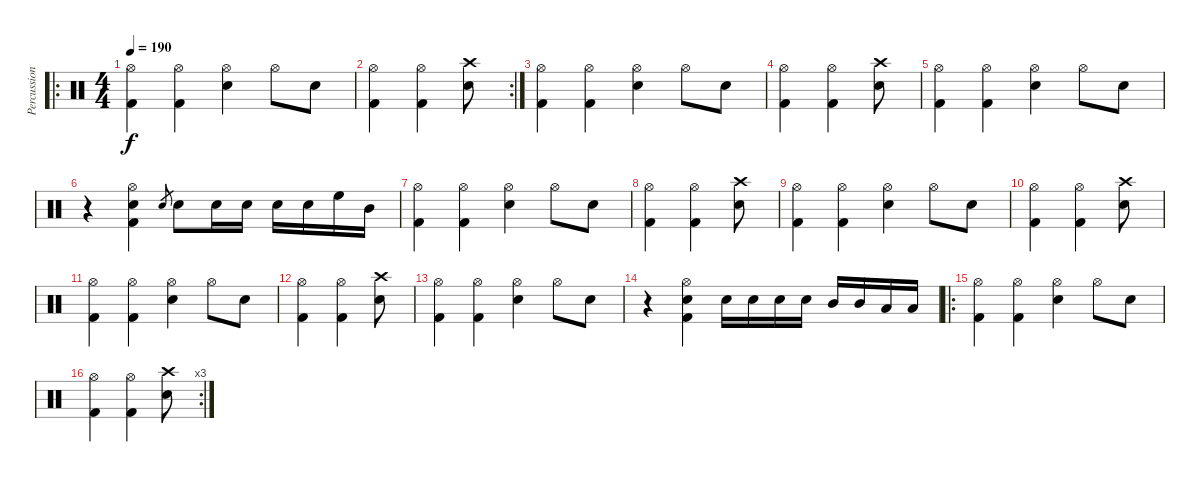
\track ("Percussion" "Percussion") {instrument percussion}
\staff {score}
\articulation defaults
\ro
\ts (4 4)
\tempo 190
\clef neutral
\ks c
("Hi-Hat (open)" "Kick (hit) 2").4{dy f} ("Hi-Hat (open)" "Kick (hit) 2").4 ("Hi-Hat (open)" "Electric Snare (hit)").4 "Hi-Hat (open)".8 "Electric Snare (hit)".8 |
\rc 2
("Hi-Hat (open)" "Kick (hit) 2").4 ("Hi-Hat (open)" "Kick (hit) 2").4 ("Crash high (hit)" "Electric Snare (hit)").8 |
("Hi-Hat (open)" "Kick (hit) 2").4 ("Hi-Hat (open)" "Kick (hit) 2").4 ("Hi-Hat (open)" "Electric Snare (hit)").4 "Hi-Hat (open)".8 "Electric Snare (hit)".8 |
("Hi-Hat (open)" "Kick (hit) 2").4 ("Hi-Hat (open)" "Kick (hit) 2").4 ("Crash high (hit)" "Electric Snare (hit)").8 |
("Hi-Hat (open)" "Kick (hit) 2").4 ("Hi-Hat (open)" "Kick (hit) 2").4 ("Hi-Hat (open)" "Electric Snare (hit)").4 "Hi-Hat (open)".8 "Electric Snare (hit)".8 |
r.4 ("Hi-Hat (open)" "Electric Snare (hit)" "Kick (hit) 2").4 "Electric Snare (hit)".8{gr} "Electric Snare (hit)".8 "Electric Snare (hit)".16 "Electric Snare (hit)".16 "Electric Snare (hit)".16 "Electric Snare (hit)".16 "High Floor Tom (hit)".16 "Mid Tom (hit)".16 |
("Hi-Hat (open)" "Kick (hit) 2").4 ("Hi-Hat (open)" "Kick (hit) 2").4 ("Hi-Hat (open)" "Electric Snare (hit)").4 "Hi-Hat (open)".8 "Electric Snare (hit)".8 |
("Hi-Hat (open)" "Kick (hit) 2").4 ("Hi-Hat (open)" "Kick (hit) 2").4 ("Crash high (hit)" "Electric Snare (hit)").8 |
("Hi-Hat (open)" "Kick (hit) 2").4 ("Hi-Hat (open)" "Kick (hit) 2").4 ("Hi-Hat (open)" "Electric Snare (hit)").4 "Hi-Hat (open)".8 "Electric Snare (hit)".8 |
("Hi-Hat (open)" "Kick (hit) 2").4 ("Hi-Hat (open)" "Kick (hit) 2").4 ("Crash high (hit)" "Electric Snare (hit)").8 |
("Hi-Hat (open)" "Kick (hit) 2").4 ("Hi-Hat (open)" "Kick (hit) 2").4 ("Hi-Hat (open)" "Electric Snare (hit)").4 "Hi-Hat (open)".8 "Electric Snare (hit)".8 |
("Hi-Hat (open)" "Kick (hit) 2").4 ("Hi-Hat (open)" "Kick (hit) 2").4 ("Crash high (hit)" "Electric Snare (hit)").8 |
("Hi-Hat (open)" "Kick (hit) 2").4 ("Hi-Hat (open)" "Kick (hit) 2").4 ("Hi-Hat (open)" "Electric Snare (hit)").4 "Hi-Hat (open)".8 "Electric Snare (hit)".8 |
r.4 ("Hi-Hat (open)" "Electric Snare (hit)" "Kick (hit) 2").4 "Electric Snare (hit)".16 "Electric Snare (hit)".16 "Electric Snare (hit)".16 "Electric Snare (hit)".16 "Mid Tom (hit)".16 "Mid Tom (hit)".16 "Low Tom (hit)".16 "Low Tom (hit)".16 |
\ro
("Hi-Hat (open)" "Kick (hit) 2").4 ("Hi-Hat (open)" "Kick (hit) 2").4 ("Hi-Hat (open)" "Electric Snare (hit)").4 "Hi-Hat (open)".8 "Electric Snare (hit)".8 |
\rc 3
("Hi-Hat (open)" "Kick (hit) 2").4 ("Hi-Hat (open)" "Kick (hit) 2").4 ("Crash high (hit)" "Electric Snare (hit)").8
